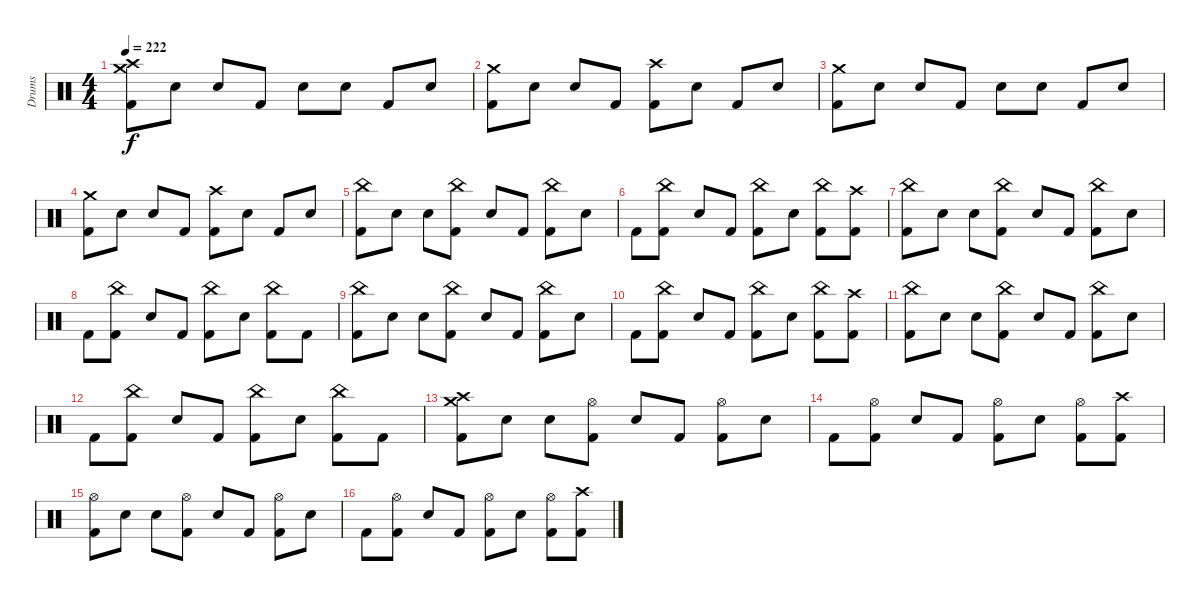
\track ("Drums" "Drums") {instrument percussion}
\staff {score}
\articulation defaults
\ts (4 4)
\tempo 222
\clef neutral
\ks c
("Crash medium (hit)" "Crash high (hit)" "Kick (hit) 2").8{dy f} "Electric Snare (hit)".8 "Electric Snare (hit)".8 "Kick (hit) 2".8 "Electric Snare (hit)".8 "Electric Snare (hit)".8 "Kick (hit) 2".8 "Electric Snare (hit)".8 |
("Crash medium (hit)" "Kick (hit) 2").8 "Electric Snare (hit)".8 "Electric Snare (hit)".8 "Kick (hit) 2".8 ("Crash high (hit)" "Kick (hit) 2").8 "Electric Snare (hit)".8 "Kick (hit) 2".8 "Electric Snare (hit)".8 |
("Crash medium (hit)" "Kick (hit) 2").8 "Electric Snare (hit)".8 "Electric Snare (hit)".8 "Kick (hit) 2".8 "Electric Snare (hit)".8 "Electric Snare (hit)".8 "Kick (hit) 2".8 "Electric Snare (hit)".8 |
("Crash medium (hit)" "Kick (hit) 2").8 "Electric Snare (hit)".8 "Electric Snare (hit)".8 "Kick (hit) 2".8 ("Crash high (hit)" "Kick (hit) 2").8 "Electric Snare (hit)".8 "Kick (hit) 2".8 "Electric Snare (hit)".8 |
("China (hit)" "Kick (hit) 2").8 "Electric Snare (hit)".8 "Electric Snare (hit)".8 ("China (hit)" "Kick (hit) 2").8 "Electric Snare (hit)".8 "Kick (hit) 2".8 ("China (hit)" "Kick (hit) 2").8 "Electric Snare (hit)".8 |
"Kick (hit) 2".8 ("China (hit)" "Kick (hit) 2").8 "Electric Snare (hit)".8 "Kick (hit) 2".8 ("China (hit)" "Kick (hit) 2").8 "Electric Snare (hit)".8 ("China (hit)" "Kick (hit) 2").8 ("Crash high (hit)" "Kick (hit) 2").8 |
("China (hit)" "Kick (hit) 2").8 "Electric Snare (hit)".8 "Electric Snare (hit)".8 ("China (hit)" "Kick (hit) 2").8 "Electric Snare (hit)".8 "Kick (hit) 2".8 ("China (hit)" "Kick (hit) 2").8 "Electric Snare (hit)".8 |
"Kick (hit) 2".8 ("China (hit)" "Kick (hit) 2").8 "Electric Snare (hit)".8 "Kick (hit) 2".8 ("China (hit)" "Kick (hit) 2").8 "Electric Snare (hit)".8 ("China (hit)" "Kick (hit) 2").8 "Kick (hit) 2".8 |
("China (hit)" "Kick (hit) 2").8 "Electric Snare (hit)".8 "Electric Snare (hit)".8 ("China (hit)" "Kick (hit) 2").8 "Electric Snare (hit)".8 "Kick (hit) 2".8 ("China (hit)" "Kick (hit) 2").8 "Electric Snare (hit)".8 |
"Kick (hit) 2".8 ("China (hit)" "Kick (hit) 2").8 "Electric Snare (hit)".8 "Kick (hit) 2".8 ("China (hit)" "Kick (hit) 2").8 "Electric Snare (hit)".8 ("China (hit)" "Kick (hit) 2").8 ("Crash high (hit)" "Kick (hit) 2").8 |
("China (hit)" "Kick (hit) 2").8 "Electric Snare (hit)".8 "Electric Snare (hit)".8 ("China (hit)" "Kick (hit) 2").8 "Electric Snare (hit)".8 "Kick (hit) 2".8 ("China (hit)" "Kick (hit) 2").8 "Electric Snare (hit)".8 |
"Kick (hit) 2".8 ("China (hit)" "Kick (hit) 2").8 "Electric Snare (hit)".8 "Kick (hit) 2".8 ("China (hit)" "Kick (hit) 2").8 "Electric Snare (hit)".8 ("China (hit)" "Kick (hit) 2").8 "Kick (hit) 2".8 |
("Crash medium (hit)" "Crash high (hit)" "Kick (hit) 2").8 "Electric Snare (hit)".8 "Electric Snare (hit)".8 ("Hi-Hat (open)" "Kick (hit) 2").8 "Electric Snare (hit)".8 "Kick (hit) 2".8 ("Hi-Hat (open)" "Kick (hit) 2").8 "Electric Snare (hit)".8 |
"Kick (hit) 2".8 ("Hi-Hat (open)" "Kick (hit) 2").8 "Electric Snare (hit)".8 "Kick (hit) 2".8 ("Hi-Hat (open)" "Kick (hit) 2").8 "Electric Snare (hit)".8 ("Hi-Hat (open)" "Kick (hit) 2").8 ("Crash high (hit)" "Kick (hit) 2").8 |
("Hi-Hat (open)" "Kick (hit) 2").8 "Electric Snare (hit)".8 "Electric Snare (hit)".8 ("Hi-Hat (open)" "Kick (hit) 2").8 "Electric Snare (hit)".8 "Kick (hit) 2".8 ("Hi-Hat (open)" "Kick (hit) 2").8 "Electric Snare (hit)".8 |
"Kick (hit) 2".8 ("Hi-Hat (open)" "Kick (hit) 2").8 "Electric Snare (hit)".8 "Kick (hit) 2".8 ("Hi-Hat (open)" "Kick (hit) 2").8 "Electric Snare (hit)".8 ("Hi-Hat (open)" "Kick (hit) 2").8 ("Crash high (hit)" "Kick (hit) 2").8
